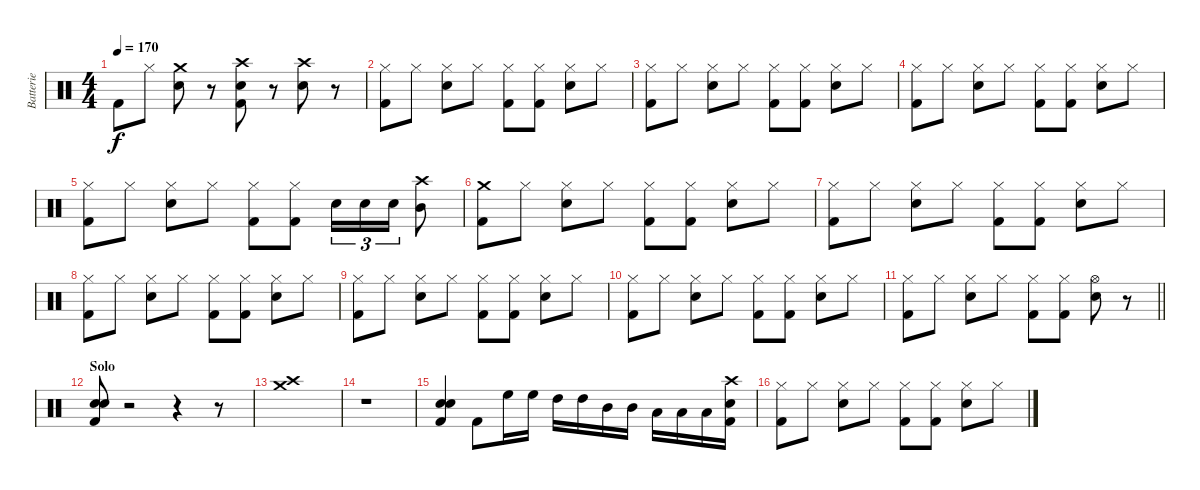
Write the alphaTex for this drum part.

\track ("Batterie" "Batterie") {instrument percussion}
\staff {score}
\articulation defaults
\ts (4 4)
\tempo 170
\clef neutral
\ks c "Kick (hit) 2".8{dy f} "Hi-Hat (closed)".8
("Snare (hit) 2" "Crash medium (hit)").8 r.8 ("Kick (hit) 2" "Snare (hit) 2" "Crash high (hit)").8 r.8 ("Snare (hit) 2" "Crash high (hit)").8 r.8 |
("Kick (hit) 2" "Hi-Hat (closed)").8 "Hi-Hat (closed)".8 ("Snare (hit) 2" "Hi-Hat (closed)").8 "Hi-Hat (closed)".8 ("Kick (hit) 2" "Hi-Hat (closed)").8 ("Kick (hit) 2" "Hi-Hat (closed)").8 ("Snare (hit) 2" "Hi-Hat (closed)").8 "Hi-Hat (closed)".8 |
("Kick (hit) 2" "Hi-Hat (closed)").8 "Hi-Hat (closed)".8 ("Snare (hit) 2" "Hi-Hat (closed)").8 "Hi-Hat (closed)".8 ("Kick (hit) 2" "Hi-Hat (closed)").8 ("Kick (hit) 2" "Hi-Hat (closed)").8 ("Snare (hit) 2" "Hi-Hat (closed)").8 "Hi-Hat (closed)".8 |
("Kick (hit) 2" "Hi-Hat (closed)").8 "Hi-Hat (closed)".8 ("Snare (hit) 2" "Hi-Hat (closed)").8 "Hi-Hat (closed)".8 ("Kick (hit) 2" "Hi-Hat (closed)").8 ("Kick (hit) 2" "Hi-Hat (closed)").8 ("Snare (hit) 2" "Hi-Hat (closed)").8 "Hi-Hat (closed)".8 |
("Kick (hit) 2" "Hi-Hat (closed)").8 "Hi-Hat (closed)".8 ("Snare (hit) 2" "Hi-Hat (closed)").8 "Hi-Hat (closed)".8 ("Kick (hit) 2" "Hi-Hat (closed)").8 ("Kick (hit) 2" "Hi-Hat (closed)").8 "Snare (hit) 2".16{tu (3 2)} "Snare (hit) 2".16{tu (3 2)} "Snare (hit) 2".16{tu (3 2)} ("Mid Tom (hit)" "Crash high (hit)").8 |
("Kick (hit) 2" "Crash medium (hit)").8 "Hi-Hat (closed)".8 ("Snare (hit) 2" "Hi-Hat (closed)").8 "Hi-Hat (closed)".8 ("Kick (hit) 2" "Hi-Hat (closed)").8 ("Kick (hit) 2" "Hi-Hat (closed)").8 ("Snare (hit) 2" "Hi-Hat (closed)").8 "Hi-Hat (closed)".8 |
("Kick (hit) 2" "Hi-Hat (closed)").8 "Hi-Hat (closed)".8 ("Snare (hit) 2" "Hi-Hat (closed)").8 "Hi-Hat (closed)".8 ("Kick (hit) 2" "Hi-Hat (closed)").8 ("Kick (hit) 2" "Hi-Hat (closed)").8 ("Snare (hit) 2" "Hi-Hat (closed)").8 "Hi-Hat (closed)".8 |
("Kick (hit) 2" "Hi-Hat (closed)").8 "Hi-Hat (closed)".8 ("Snare (hit) 2" "Hi-Hat (closed)").8 "Hi-Hat (closed)".8 ("Kick (hit) 2" "Hi-Hat (closed)").8 ("Kick (hit) 2" "Hi-Hat (closed)").8 ("Snare (hit) 2" "Hi-Hat (closed)").8 "Hi-Hat (closed)".8 |
("Kick (hit) 2" "Hi-Hat (closed)").8 "Hi-Hat (closed)".8 ("Snare (hit) 2" "Hi-Hat (closed)").8 "Hi-Hat (closed)".8 ("Kick (hit) 2" "Hi-Hat (closed)").8 ("Kick (hit) 2" "Hi-Hat (closed)").8 ("Snare (hit) 2" "Hi-Hat (closed)").8 "Hi-Hat (closed)".8 |
("Kick (hit) 2" "Hi-Hat (closed)").8 "Hi-Hat (closed)".8 ("Snare (hit) 2" "Hi-Hat (closed)").8 "Hi-Hat (closed)".8 ("Kick (hit) 2" "Hi-Hat (closed)").8 ("Kick (hit) 2" "Hi-Hat (closed)").8 ("Snare (hit) 2" "Hi-Hat (closed)").8 "Hi-Hat (closed)".8 |
\barLineRight lightlight
("Kick (hit) 2" "Hi-Hat (closed)").8 "Hi-Hat (closed)".8 ("Snare (hit) 2" "Hi-Hat (closed)").8 "Hi-Hat (closed)".8 ("Kick (hit) 2" "Hi-Hat (closed)").8 ("Kick (hit) 2" "Hi-Hat (closed)").8 ("Snare (hit) 2" "Hi-Hat (open)").8 r.8 |
\section ("" "Solo")
("Kick (hit) 2" "Snare (hit) 2" "Snare (hit) 2").8 r.2 r.4 r.8 |
("Crash high (hit)" "Crash medium (hit)").1 |
r.1 |
("Kick (hit) 2" "Snare (hit) 2" "Snare (hit) 2").4 "Kick (hit) 2".8 "High Floor Tom (hit)".16 "High Floor Tom (hit)".16 "High Tom (hit)".16 "High Tom (hit)".16 "Mid Tom (hit)".16 "Mid Tom (hit)".16 "Low Tom (hit)".16 "Low Tom (hit)".16 "Low Tom (hit)".16 ("Kick (hit) 2" "Snare (hit) 2" "Crash high (hit)").16 |
("Kick (hit) 2" "Hi-Hat (closed)").8 "Hi-Hat (closed)".8 ("Snare (hit) 2" "Hi-Hat (closed)").8 "Hi-Hat (closed)".8 ("Kick (hit) 2" "Hi-Hat (closed)").8 ("Kick (hit) 2" "Hi-Hat (closed)").8 ("Snare (hit) 2" "Hi-Hat (closed)").8 "Hi-Hat (closed)".8
